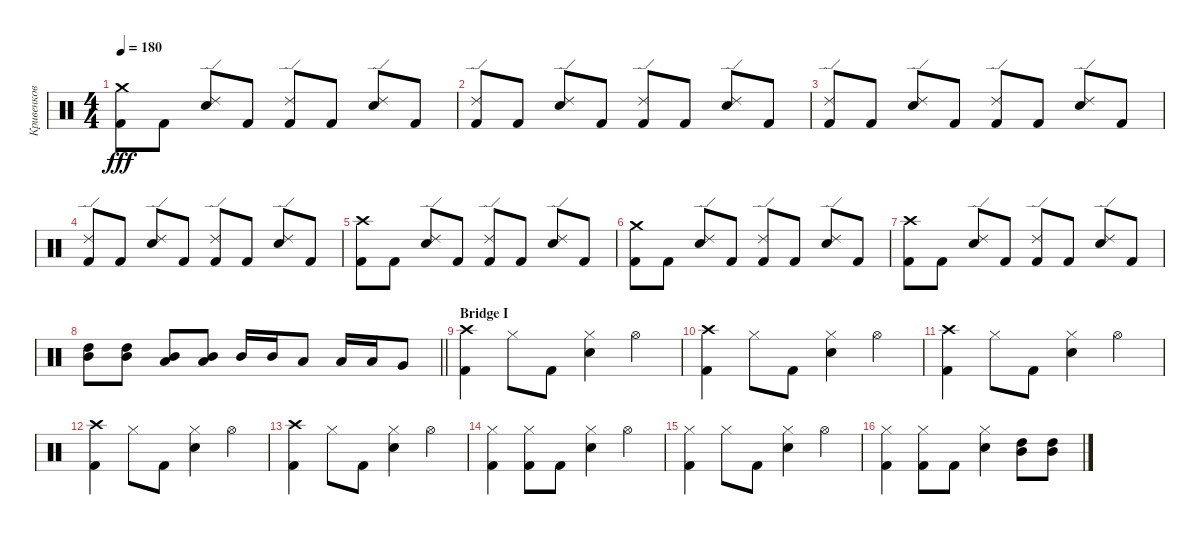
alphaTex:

\track ("Кривенков" "Кривенков") {instrument percussion}
\staff {score}
\articulation defaults
\ts (4 4)
\tempo 180
\clef neutral
\ks c
("Crash medium (hit)" "Kick (hit) 2").8{dy fff} "Kick (hit) 2".8 ("Snare (hit) 2" "Ride (edge) 2").8 "Kick (hit) 2".8 ("Ride (edge) 2" "Kick (hit) 2").8 "Kick (hit) 2".8 ("Snare (hit) 2" "Ride (edge) 2").8 "Kick (hit) 2".8 |
("Ride (edge) 2" "Kick (hit) 2").8 "Kick (hit) 2".8 ("Ride (edge) 2" "Snare (hit) 2").8 "Kick (hit) 2".8 ("Ride (edge) 2" "Kick (hit) 2").8 "Kick (hit) 2".8 ("Ride (edge) 2" "Snare (hit) 2").8 "Kick (hit) 2".8 |
("Kick (hit) 2" "Ride (edge) 2").8 "Kick (hit) 2".8 ("Ride (edge) 2" "Snare (hit) 2").8 "Kick (hit) 2".8 ("Kick (hit) 2" "Ride (edge) 2").8 "Kick (hit) 2".8 ("Snare (hit) 2" "Ride (edge) 2").8 "Kick (hit) 2".8 |
("Ride (edge) 2" "Kick (hit) 2").8 "Kick (hit) 2".8 ("Ride (edge) 2" "Snare (hit) 2").8 "Kick (hit) 2".8 ("Kick (hit) 2" "Ride (edge) 2").8 "Kick (hit) 2".8 ("Snare (hit) 2" "Ride (edge) 2").8 "Kick (hit) 2".8 |
("Kick (hit) 2" "Crash high (hit)").8 "Kick (hit) 2".8 ("Ride (edge) 2" "Snare (hit) 2").8 "Kick (hit) 2".8 ("Kick (hit) 2" "Ride (edge) 2").8 "Kick (hit) 2".8 ("Ride (edge) 2" "Snare (hit) 2").8 "Kick (hit) 2".8 |
("Crash medium (hit)" "Kick (hit) 2").8 "Kick (hit) 2".8 ("Snare (hit) 2" "Ride (edge) 2").8 "Kick (hit) 2".8 ("Kick (hit) 2" "Ride (edge) 2").8 "Kick (hit) 2".8 ("Snare (hit) 2" "Ride (edge) 2").8 "Kick (hit) 2".8 |
("Crash high (hit)" "Kick (hit) 2").8 "Kick (hit) 2".8 ("Snare (hit) 2" "Ride (edge) 2").8 "Kick (hit) 2".8 ("Kick (hit) 2" "Ride (edge) 2").8 "Kick (hit) 2".8 ("Snare (hit) 2" "Ride (edge) 2").8 "Kick (hit) 2".8 |
\barLineRight lightlight
("High Tom (hit)" "Mid Tom (hit)").8 ("High Tom (hit)" "Mid Tom (hit)").8 ("Low Tom (hit)" "Mid Tom (hit)").8 ("Mid Tom (hit)" "Low Tom (hit)").8 "Mid Tom (hit)".16 "Mid Tom (hit)".16 "Low Tom (hit)".8 "Low Tom (hit)".16 "Low Tom (hit)".16 "Very Low Tom (hit)".8 |
\section ("" "Bridge I")
("Crash high (hit)" "Kick (hit) 2").4 "Hi-Hat (closed)".8 "Kick (hit) 2".8 ("Snare (hit) 2" "Hi-Hat (closed)").4 "Hi-Hat (open)".4 |
("Crash high (hit)" "Kick (hit) 2").4 "Hi-Hat (closed)".8 "Kick (hit) 2".8 ("Snare (hit) 2" "Hi-Hat (closed)").4 "Hi-Hat (open)".4 |
("Crash high (hit)" "Kick (hit) 2").4 "Hi-Hat (closed)".8 "Kick (hit) 2".8 ("Snare (hit) 2" "Hi-Hat (closed)").4 "Hi-Hat (open)".4 |
("Crash high (hit)" "Kick (hit) 2").4 "Hi-Hat (closed)".8 "Kick (hit) 2".8 ("Snare (hit) 2" "Hi-Hat (closed)").4 "Hi-Hat (open)".4 |
("Crash high (hit)" "Kick (hit) 2").4 "Hi-Hat (closed)".8 "Kick (hit) 2".8 ("Snare (hit) 2" "Hi-Hat (closed)").4 "Hi-Hat (open)".4 |
("Kick (hit) 2" "Hi-Hat (closed)").4 ("Kick (hit) 2" "Hi-Hat (closed)").8 "Kick (hit) 2".8 ("Hi-Hat (closed)" "Snare (hit) 2").4 "Hi-Hat (open)".4 |
("Hi-Hat (closed)" "Kick (hit) 2").4 "Hi-Hat (closed)".8 "Kick (hit) 2".8 ("Snare (hit) 2" "Hi-Hat (closed)").4 "Hi-Hat (open)".4 |
("Kick (hit) 2" "Hi-Hat (closed)").4 ("Hi-Hat (closed)" "Kick (hit) 2").8 "Kick (hit) 2".8 ("Snare (hit) 2" "Hi-Hat (closed)").4 ("High Tom (hit)" "Mid Tom (hit)").8 ("Mid Tom (hit)" "High Tom (hit)").8
